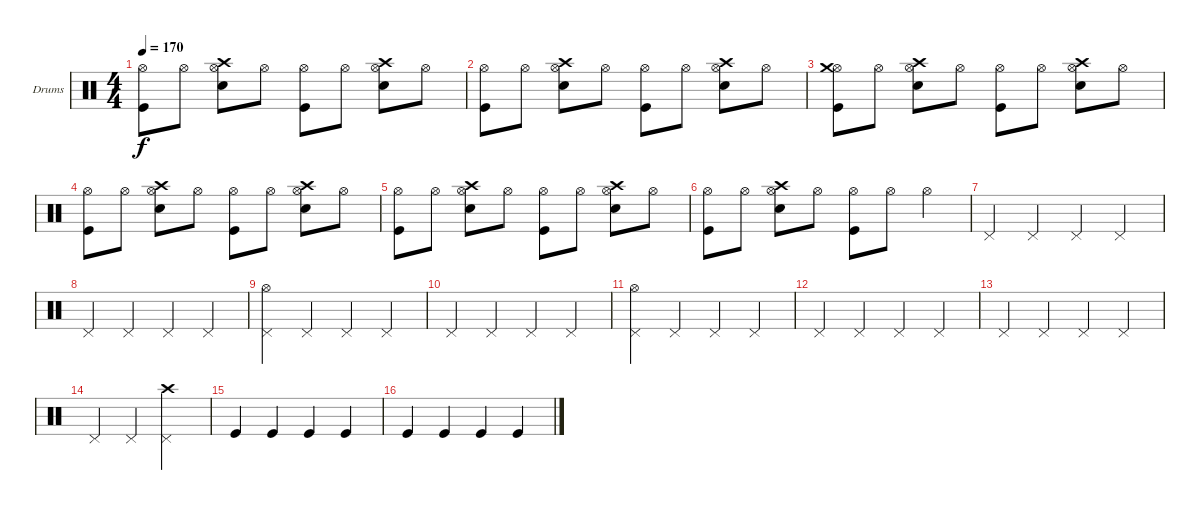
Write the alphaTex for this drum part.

\defaultSystemsLayout 4
\bracketExtendMode groupsimilarinstruments
\firstSystemTrackNameOrientation horizontal
\otherSystemsTrackNameOrientation horizontal
\track ("Барабаны" "Drums") {instrument percussion}
\staff {score}
\articulation defaults
\ts (4 4)
\tempo 170
\clef neutral
\ks c
("Kick (hit)" "Hi-Hat (open)").8{dy f} "Hi-Hat (open)".8 ("Snare (hit) 2" "Hi-Hat (open)" "Crash high (hit)").8 "Hi-Hat (open)".8 ("Kick (hit)" "Hi-Hat (open)").8 "Hi-Hat (open)".8 ("Snare (hit) 2" "Hi-Hat (open)" "Crash high (hit)").8 "Hi-Hat (open)".8 |
("Kick (hit)" "Hi-Hat (open)").8 "Hi-Hat (open)".8 ("Snare (hit) 2" "Hi-Hat (open)" "Crash high (hit)").8 "Hi-Hat (open)".8 ("Kick (hit)" "Hi-Hat (open)").8 "Hi-Hat (open)".8 ("Snare (hit) 2" "Hi-Hat (open)" "Crash high (hit)").8 "Hi-Hat (open)".8 |
("Kick (hit)" "Hi-Hat (open)" "Crash medium (hit)").8 "Hi-Hat (open)".8 ("Snare (hit) 2" "Hi-Hat (open)" "Crash high (hit)").8 "Hi-Hat (open)".8 ("Kick (hit)" "Hi-Hat (open)").8 "Hi-Hat (open)".8 ("Snare (hit) 2" "Hi-Hat (open)" "Crash high (hit)").8 "Hi-Hat (open)".8 |
("Kick (hit)" "Hi-Hat (open)").8 "Hi-Hat (open)".8 ("Snare (hit) 2" "Hi-Hat (open)" "Crash high (hit)").8 "Hi-Hat (open)".8 ("Kick (hit)" "Hi-Hat (open)").8 "Hi-Hat (open)".8 ("Snare (hit) 2" "Hi-Hat (open)" "Crash high (hit)").8 "Hi-Hat (open)".8 |
("Kick (hit)" "Hi-Hat (open)").8 "Hi-Hat (open)".8 ("Snare (hit) 2" "Hi-Hat (open)" "Crash high (hit)").8 "Hi-Hat (open)".8 ("Kick (hit)" "Hi-Hat (open)").8 "Hi-Hat (open)".8 ("Snare (hit) 2" "Hi-Hat (open)" "Crash high (hit)").8 "Hi-Hat (open)".8 |
("Kick (hit)" "Hi-Hat (open)").8 "Hi-Hat (open)".8 ("Snare (hit) 2" "Hi-Hat (open)" "Crash high (hit)").8 "Hi-Hat (open)".8 ("Kick (hit)" "Hi-Hat (open)").8 "Hi-Hat (open)".8 "Hi-Hat (open)".4 |
"Pedal Hi-Hat (hit)".4 "Pedal Hi-Hat (hit)".4 "Pedal Hi-Hat (hit)".4 "Pedal Hi-Hat (hit)".4 |
"Pedal Hi-Hat (hit)".4 "Pedal Hi-Hat (hit)".4 "Pedal Hi-Hat (hit)".4 "Pedal Hi-Hat (hit)".4 |
("Pedal Hi-Hat (hit)" "Hi-Hat (open)").4 "Pedal Hi-Hat (hit)".4 "Pedal Hi-Hat (hit)".4 "Pedal Hi-Hat (hit)".4 |
"Pedal Hi-Hat (hit)".4 "Pedal Hi-Hat (hit)".4 "Pedal Hi-Hat (hit)".4 "Pedal Hi-Hat (hit)".4 |
("Pedal Hi-Hat (hit)" "Hi-Hat (open)").4 "Pedal Hi-Hat (hit)".4 "Pedal Hi-Hat (hit)".4 "Pedal Hi-Hat (hit)".4 |
"Pedal Hi-Hat (hit)".4 "Pedal Hi-Hat (hit)".4 "Pedal Hi-Hat (hit)".4 "Pedal Hi-Hat (hit)".4 |
"Pedal Hi-Hat (hit)".4 "Pedal Hi-Hat (hit)".4 "Pedal Hi-Hat (hit)".4 "Pedal Hi-Hat (hit)".4 |
"Pedal Hi-Hat (hit)".4 "Pedal Hi-Hat (hit)".4 ("Pedal Hi-Hat (hit)" "Crash high (hit)").2 |
"Kick (hit)".4 "Kick (hit)".4 "Kick (hit)".4 "Kick (hit)".4 |
"Kick (hit)".4 "Kick (hit)".4 "Kick (hit)".4 "Kick (hit)".4
